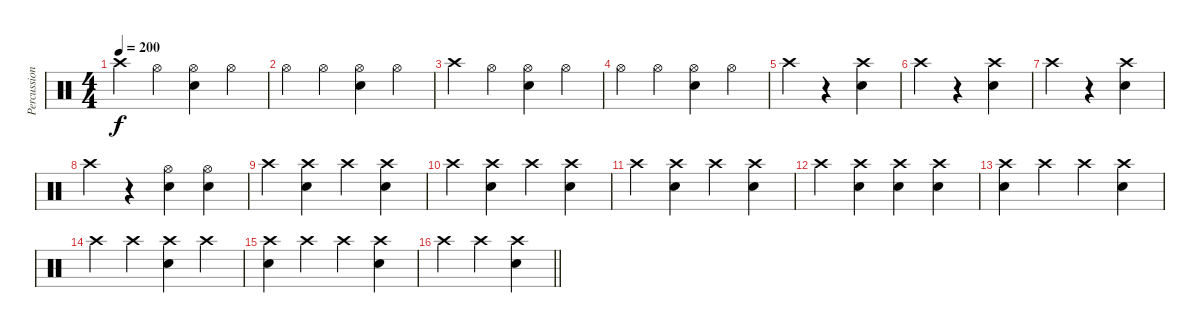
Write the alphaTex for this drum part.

\track ("Percussion" "Percussion") {instrument percussion}
\staff {score}
\articulation defaults
\ts (4 4)
\tempo 200
\clef neutral
\ks c "Crash high (hit)".4{dy f} "Hi-Hat (open)".4
("Hi-Hat (open)" "Snare (hit) 2").4 "Hi-Hat (open)".4 |
"Hi-Hat (open)".4 "Hi-Hat (open)".4 ("Hi-Hat (open)" "Snare (hit) 2").4 "Hi-Hat (open)".4 |
"Crash high (hit)".4 "Hi-Hat (open)".4 ("Hi-Hat (open)" "Snare (hit) 2").4 "Hi-Hat (open)".4 |
"Hi-Hat (open)".4 "Hi-Hat (open)".4 ("Hi-Hat (open)" "Snare (hit) 2").4 "Hi-Hat (open)".4 |
"Crash high (hit)".4 r.4 ("Crash high (hit)" "Snare (hit) 2").4 |
"Crash high (hit)".4 r.4 ("Crash high (hit)" "Snare (hit) 2").4 |
"Crash high (hit)".4 r.4 ("Crash high (hit)" "Snare (hit) 2").4 |
"Crash high (hit)".4 r.4 ("Hi-Hat (open)" "Snare (hit) 2").4 ("Hi-Hat (open)" "Snare (hit) 2").4 |
"Crash high (hit)".4 ("Crash high (hit)" "Snare (hit) 2").4 "Crash high (hit)".4 ("Crash high (hit)" "Snare (hit) 2").4 |
"Crash high (hit)".4 ("Crash high (hit)" "Snare (hit) 2").4 "Crash high (hit)".4 ("Crash high (hit)" "Snare (hit) 2").4 |
"Crash high (hit)".4 ("Crash high (hit)" "Snare (hit) 2").4 "Crash high (hit)".4 ("Crash high (hit)" "Snare (hit) 2").4 |
"Crash high (hit)".4 ("Crash high (hit)" "Snare (hit) 2").4 ("Crash high (hit)" "Snare (hit) 2").4 ("Crash high (hit)" "Snare (hit) 2").4 |
("Crash high (hit)" "Snare (hit) 2").4 "Crash high (hit)".4 "Crash high (hit)".4 ("Crash high (hit)" "Snare (hit) 2").4 |
"Crash high (hit)".4 "Crash high (hit)".4 ("Crash high (hit)" "Snare (hit) 2").4 "Crash high (hit)".4 |
("Crash high (hit)" "Snare (hit) 2").4 "Crash high (hit)".4 "Crash high (hit)".4 ("Crash high (hit)" "Snare (hit) 2").4 |
\barLineRight lightlight "Crash high (hit)".4 "Crash high (hit)".4
("Crash high (hit)" "Snare (hit) 2").4
